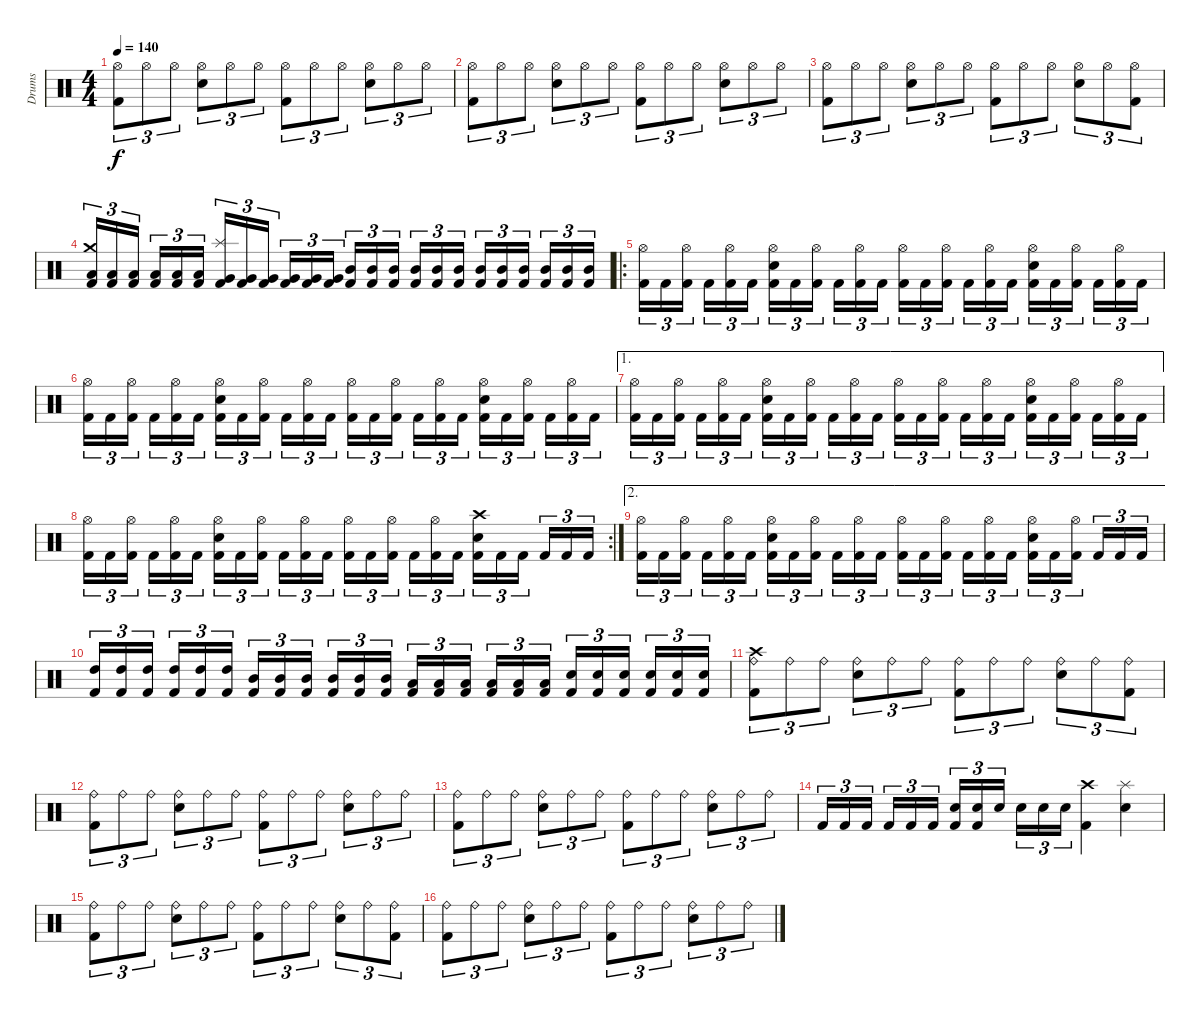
\track ("Drums" "Drums") {instrument percussion}
\staff {score}
\articulation defaults
\ts (4 4)
\tempo 140
\clef neutral
\ks c
("Hi-Hat (open)" "Kick (hit) 2").8{tu (3 2) dy f} "Hi-Hat (open)".8{tu (3 2)} "Hi-Hat (open)".8{tu (3 2)} ("Hi-Hat (open)" "Electric Snare (hit)").8{tu (3 2)} "Hi-Hat (open)".8{tu (3 2)} "Hi-Hat (open)".8{tu (3 2)} ("Hi-Hat (open)" "Kick (hit) 2").8{tu (3 2)} "Hi-Hat (open)".8{tu (3 2)} "Hi-Hat (open)".8{tu (3 2)} ("Hi-Hat (open)" "Electric Snare (hit)").8{tu (3 2)} "Hi-Hat (open)".8{tu (3 2)} "Hi-Hat (open)".8{tu (3 2)} |
("Hi-Hat (open)" "Kick (hit) 2").8{tu (3 2)} "Hi-Hat (open)".8{tu (3 2)} "Hi-Hat (open)".8{tu (3 2)} ("Hi-Hat (open)" "Electric Snare (hit)").8{tu (3 2)} "Hi-Hat (open)".8{tu (3 2)} "Hi-Hat (open)".8{tu (3 2)} ("Hi-Hat (open)" "Kick (hit) 2").8{tu (3 2)} "Hi-Hat (open)".8{tu (3 2)} "Hi-Hat (open)".8{tu (3 2)} ("Hi-Hat (open)" "Electric Snare (hit)").8{tu (3 2)} "Hi-Hat (open)".8{tu (3 2)} "Hi-Hat (open)".8{tu (3 2)} |
("Hi-Hat (open)" "Kick (hit) 2").8{tu (3 2)} "Hi-Hat (open)".8{tu (3 2)} "Hi-Hat (open)".8{tu (3 2)} ("Hi-Hat (open)" "Electric Snare (hit)").8{tu (3 2)} "Hi-Hat (open)".8{tu (3 2)} "Hi-Hat (open)".8{tu (3 2)} ("Hi-Hat (open)" "Kick (hit) 2").8{tu (3 2)} "Hi-Hat (open)".8{tu (3 2)} "Hi-Hat (open)".8{tu (3 2)} ("Hi-Hat (open)" "Electric Snare (hit)").8{tu (3 2)} "Hi-Hat (open)".8{tu (3 2)} ("Hi-Hat (open)" "Kick (hit) 2").8{tu (3 2)} |
("Crash medium (hit)" "Low Tom (hit)" "Kick (hit) 2").16{tu (3 2)} ("Low Tom (hit)" "Kick (hit) 2").16{tu (3 2)} ("Low Tom (hit)" "Kick (hit) 2").16{tu (3 2)} ("Low Tom (hit)" "Kick (hit) 2").16{tu (3 2)} ("Low Tom (hit)" "Kick (hit) 2").16{tu (3 2)} ("Low Tom (hit)" "Kick (hit) 2").16{tu (3 2)} ("Splash (hit)" "Very Low Tom (hit)" "Kick (hit) 2").16{tu (3 2)} ("Very Low Tom (hit)" "Kick (hit) 2").16{tu (3 2)} ("Very Low Tom (hit)" "Kick (hit) 2").16{tu (3 2)} ("Very Low Tom (hit)" "Kick (hit) 2").16{tu (3 2)} ("Very Low Tom (hit)" "Kick (hit) 2").16{tu (3 2)} ("Very Low Tom (hit)" "Kick (hit) 2").16{tu (3 2)} ("Mid Tom (hit)" "Kick (hit) 2").16{tu (3 2)} ("Mid Tom (hit)" "Kick (hit) 2").16{tu (3 2)} ("Mid Tom (hit)" "Kick (hit) 2").16{tu (3 2)} ("Mid Tom (hit)" "Kick (hit) 2").16{tu (3 2)} ("Mid Tom (hit)" "Kick (hit) 2").16{tu (3 2)} ("Mid Tom (hit)" "Kick (hit) 2").16{tu (3 2)} ("Mid Tom (hit)" "Kick (hit) 2").16{tu (3 2)} ("Mid Tom (hit)" "Kick (hit) 2").16{tu (3 2)} ("Mid Tom (hit)" "Kick (hit) 2").16{tu (3 2)} ("Mid Tom (hit)" "Kick (hit) 2").16{tu (3 2)} ("Mid Tom (hit)" "Kick (hit) 2").16{tu (3 2)} ("Mid Tom (hit)" "Kick (hit) 2").16{tu (3 2)} |
\ro
("Hi-Hat (open)" "Kick (hit) 2").16{tu (3 2)} "Kick (hit) 2".16{tu (3 2)} ("Hi-Hat (open)" "Kick (hit) 2").16{tu (3 2)} "Kick (hit) 2".16{tu (3 2)} ("Hi-Hat (open)" "Kick (hit) 2").16{tu (3 2)} "Kick (hit) 2".16{tu (3 2)} ("Hi-Hat (open)" "Electric Snare (hit)" "Kick (hit) 2").16{tu (3 2)} "Kick (hit) 2".16{tu (3 2)} ("Hi-Hat (open)" "Kick (hit) 2").16{tu (3 2)} "Kick (hit) 2".16{tu (3 2)} ("Hi-Hat (open)" "Kick (hit) 2").16{tu (3 2)} "Kick (hit) 2".16{tu (3 2)} ("Hi-Hat (open)" "Kick (hit) 2").16{tu (3 2)} "Kick (hit) 2".16{tu (3 2)} ("Hi-Hat (open)" "Kick (hit) 2").16{tu (3 2)} "Kick (hit) 2".16{tu (3 2)} ("Hi-Hat (open)" "Kick (hit) 2").16{tu (3 2)} "Kick (hit) 2".16{tu (3 2)} ("Hi-Hat (open)" "Electric Snare (hit)" "Kick (hit) 2").16{tu (3 2)} "Kick (hit) 2".16{tu (3 2)} ("Hi-Hat (open)" "Kick (hit) 2").16{tu (3 2)} "Kick (hit) 2".16{tu (3 2)} ("Hi-Hat (open)" "Kick (hit) 2").16{tu (3 2)} "Kick (hit) 2".16{tu (3 2)} |
("Hi-Hat (open)" "Kick (hit) 2").16{tu (3 2)} "Kick (hit) 2".16{tu (3 2)} ("Hi-Hat (open)" "Kick (hit) 2").16{tu (3 2)} "Kick (hit) 2".16{tu (3 2)} ("Hi-Hat (open)" "Kick (hit) 2").16{tu (3 2)} "Kick (hit) 2".16{tu (3 2)} ("Hi-Hat (open)" "Electric Snare (hit)" "Kick (hit) 2").16{tu (3 2)} "Kick (hit) 2".16{tu (3 2)} ("Hi-Hat (open)" "Kick (hit) 2").16{tu (3 2)} "Kick (hit) 2".16{tu (3 2)} ("Hi-Hat (open)" "Kick (hit) 2").16{tu (3 2)} "Kick (hit) 2".16{tu (3 2)} ("Hi-Hat (open)" "Kick (hit) 2").16{tu (3 2)} "Kick (hit) 2".16{tu (3 2)} ("Hi-Hat (open)" "Kick (hit) 2").16{tu (3 2)} "Kick (hit) 2".16{tu (3 2)} ("Hi-Hat (open)" "Kick (hit) 2").16{tu (3 2)} "Kick (hit) 2".16{tu (3 2)} ("Hi-Hat (open)" "Electric Snare (hit)" "Kick (hit) 2").16{tu (3 2)} "Kick (hit) 2".16{tu (3 2)} ("Hi-Hat (open)" "Kick (hit) 2").16{tu (3 2)} "Kick (hit) 2".16{tu (3 2)} ("Hi-Hat (open)" "Kick (hit) 2").16{tu (3 2)} "Kick (hit) 2".16{tu (3 2)} |
\ae 1
("Hi-Hat (open)" "Kick (hit) 2").16{tu (3 2)} "Kick (hit) 2".16{tu (3 2)} ("Hi-Hat (open)" "Kick (hit) 2").16{tu (3 2)} "Kick (hit) 2".16{tu (3 2)} ("Hi-Hat (open)" "Kick (hit) 2").16{tu (3 2)} "Kick (hit) 2".16{tu (3 2)} ("Hi-Hat (open)" "Electric Snare (hit)" "Kick (hit) 2").16{tu (3 2)} "Kick (hit) 2".16{tu (3 2)} ("Hi-Hat (open)" "Kick (hit) 2").16{tu (3 2)} "Kick (hit) 2".16{tu (3 2)} ("Hi-Hat (open)" "Kick (hit) 2").16{tu (3 2)} "Kick (hit) 2".16{tu (3 2)} ("Hi-Hat (open)" "Kick (hit) 2").16{tu (3 2)} "Kick (hit) 2".16{tu (3 2)} ("Hi-Hat (open)" "Kick (hit) 2").16{tu (3 2)} "Kick (hit) 2".16{tu (3 2)} ("Hi-Hat (open)" "Kick (hit) 2").16{tu (3 2)} "Kick (hit) 2".16{tu (3 2)} ("Hi-Hat (open)" "Electric Snare (hit)" "Kick (hit) 2").16{tu (3 2)} "Kick (hit) 2".16{tu (3 2)} ("Hi-Hat (open)" "Kick (hit) 2").16{tu (3 2)} "Kick (hit) 2".16{tu (3 2)} ("Hi-Hat (open)" "Kick (hit) 2").16{tu (3 2)} "Kick (hit) 2".16{tu (3 2)} |
\rc 2
("Hi-Hat (open)" "Kick (hit) 2").16{tu (3 2)} "Kick (hit) 2".16{tu (3 2)} ("Hi-Hat (open)" "Kick (hit) 2").16{tu (3 2)} "Kick (hit) 2".16{tu (3 2)} ("Hi-Hat (open)" "Kick (hit) 2").16{tu (3 2)} "Kick (hit) 2".16{tu (3 2)} ("Hi-Hat (open)" "Electric Snare (hit)" "Kick (hit) 2").16{tu (3 2)} "Kick (hit) 2".16{tu (3 2)} ("Hi-Hat (open)" "Kick (hit) 2").16{tu (3 2)} "Kick (hit) 2".16{tu (3 2)} ("Hi-Hat (open)" "Kick (hit) 2").16{tu (3 2)} "Kick (hit) 2".16{tu (3 2)} ("Hi-Hat (open)" "Kick (hit) 2").16{tu (3 2)} "Kick (hit) 2".16{tu (3 2)} ("Hi-Hat (open)" "Kick (hit) 2").16{tu (3 2)} "Kick (hit) 2".16{tu (3 2)} ("Hi-Hat (open)" "Kick (hit) 2").16{tu (3 2)} "Kick (hit) 2".16{tu (3 2)} ("Crash high (hit)" "Electric Snare (hit)" "Kick (hit) 2").16{tu (3 2)} "Kick (hit) 2".16{tu (3 2)} "Kick (hit) 2".16{tu (3 2)} "Kick (hit) 2".16{tu (3 2)} "Kick (hit) 2".16{tu (3 2)} "Kick (hit) 2".16{tu (3 2)} |
\ae 2
("Hi-Hat (open)" "Kick (hit) 2").16{tu (3 2)} "Kick (hit) 2".16{tu (3 2)} ("Hi-Hat (open)" "Kick (hit) 2").16{tu (3 2)} "Kick (hit) 2".16{tu (3 2)} ("Hi-Hat (open)" "Kick (hit) 2").16{tu (3 2)} "Kick (hit) 2".16{tu (3 2)} ("Hi-Hat (open)" "Electric Snare (hit)" "Kick (hit) 2").16{tu (3 2)} "Kick (hit) 2".16{tu (3 2)} ("Hi-Hat (open)" "Kick (hit) 2").16{tu (3 2)} "Kick (hit) 2".16{tu (3 2)} ("Hi-Hat (open)" "Kick (hit) 2").16{tu (3 2)} "Kick (hit) 2".16{tu (3 2)} ("Hi-Hat (open)" "Kick (hit) 2").16{tu (3 2)} "Kick (hit) 2".16{tu (3 2)} ("Hi-Hat (open)" "Kick (hit) 2").16{tu (3 2)} "Kick (hit) 2".16{tu (3 2)} ("Hi-Hat (open)" "Kick (hit) 2").16{tu (3 2)} "Kick (hit) 2".16{tu (3 2)} ("Hi-Hat (open)" "Electric Snare (hit)" "Kick (hit) 2").16{tu (3 2)} "Kick (hit) 2".16{tu (3 2)} ("Hi-Hat (open)" "Kick (hit) 2").16{tu (3 2)} "Kick (hit) 2".16{tu (3 2)} "Kick (hit) 2".16{tu (3 2)} "Kick (hit) 2".16{tu (3 2)} |
("High Tom (hit)" "Kick (hit) 2").16{tu (3 2)} ("High Tom (hit)" "Kick (hit) 2").16{tu (3 2)} ("High Tom (hit)" "Kick (hit) 2").16{tu (3 2)} ("High Tom (hit)" "Kick (hit) 2").16{tu (3 2)} ("High Tom (hit)" "Kick (hit) 2").16{tu (3 2)} ("High Tom (hit)" "Kick (hit) 2").16{tu (3 2)} ("Mid Tom (hit)" "Kick (hit) 2").16{tu (3 2)} ("Mid Tom (hit)" "Kick (hit) 2").16{tu (3 2)} ("Mid Tom (hit)" "Kick (hit) 2").16{tu (3 2)} ("Mid Tom (hit)" "Kick (hit) 2").16{tu (3 2)} ("Mid Tom (hit)" "Kick (hit) 2").16{tu (3 2)} ("Mid Tom (hit)" "Kick (hit) 2").16{tu (3 2)} ("Low Tom (hit)" "Kick (hit) 2").16{tu (3 2)} ("Low Tom (hit)" "Kick (hit) 2").16{tu (3 2)} ("Low Tom (hit)" "Kick (hit) 2").16{tu (3 2)} ("Low Tom (hit)" "Kick (hit) 2").16{tu (3 2)} ("Low Tom (hit)" "Kick (hit) 2").16{tu (3 2)} ("Low Tom (hit)" "Kick (hit) 2").16{tu (3 2)} ("Electric Snare (hit)" "Kick (hit) 2").16{tu (3 2)} ("Electric Snare (hit)" "Kick (hit) 2").16{tu (3 2)} ("Electric Snare (hit)" "Kick (hit) 2").16{tu (3 2)} ("Electric Snare (hit)" "Kick (hit) 2").16{tu (3 2)} ("Electric Snare (hit)" "Kick (hit) 2").16{tu (3 2)} ("Electric Snare (hit)" "Kick (hit) 2").16{tu (3 2)} |
("Crash high (hit)" "Ride (bell)" "Kick (hit) 2").8{tu (3 2)} "Ride (bell)".8{tu (3 2)} "Ride (bell)".8{tu (3 2)} ("Ride (bell)" "Electric Snare (hit)").8{tu (3 2)} "Ride (bell)".8{tu (3 2)} "Ride (bell)".8{tu (3 2)} ("Ride (bell)" "Kick (hit) 2").8{tu (3 2)} "Ride (bell)".8{tu (3 2)} "Ride (bell)".8{tu (3 2)} ("Ride (bell)" "Electric Snare (hit)").8{tu (3 2)} "Ride (bell)".8{tu (3 2)} ("Ride (bell)" "Kick (hit) 2").8{tu (3 2)} |
("Ride (bell)" "Kick (hit) 2").8{tu (3 2)} "Ride (bell)".8{tu (3 2)} "Ride (bell)".8{tu (3 2)} ("Ride (bell)" "Electric Snare (hit)").8{tu (3 2)} "Ride (bell)".8{tu (3 2)} "Ride (bell)".8{tu (3 2)} ("Ride (bell)" "Kick (hit) 2").8{tu (3 2)} "Ride (bell)".8{tu (3 2)} "Ride (bell)".8{tu (3 2)} ("Ride (bell)" "Electric Snare (hit)").8{tu (3 2)} "Ride (bell)".8{tu (3 2)} "Ride (bell)".8{tu (3 2)} |
("Ride (bell)" "Kick (hit) 2").8{tu (3 2)} "Ride (bell)".8{tu (3 2)} "Ride (bell)".8{tu (3 2)} ("Ride (bell)" "Electric Snare (hit)").8{tu (3 2)} "Ride (bell)".8{tu (3 2)} "Ride (bell)".8{tu (3 2)} ("Ride (bell)" "Kick (hit) 2").8{tu (3 2)} "Ride (bell)".8{tu (3 2)} "Ride (bell)".8{tu (3 2)} ("Ride (bell)" "Electric Snare (hit)").8{tu (3 2)} "Ride (bell)".8{tu (3 2)} "Ride (bell)".8{tu (3 2)} |
"Kick (hit) 2".16{tu (3 2)} "Kick (hit) 2".16{tu (3 2)} "Kick (hit) 2".16{tu (3 2)} "Kick (hit) 2".16{tu (3 2)} "Kick (hit) 2".16{tu (3 2)} "Kick (hit) 2".16{tu (3 2)} ("Electric Snare (hit)" "Kick (hit) 2").16{tu (3 2)} ("Electric Snare (hit)" "Kick (hit) 2").16{tu (3 2)} "Electric Snare (hit)".16{tu (3 2)} "Electric Snare (hit)".16{tu (3 2)} "Electric Snare (hit)".16{tu (3 2)} "Electric Snare (hit)".16{tu (3 2)} ("Crash high (hit)" "Kick (hit) 2").4 ("Splash (hit)" "Electric Snare (hit)").4 |
("Ride (bell)" "Kick (hit) 2").8{tu (3 2)} "Ride (bell)".8{tu (3 2)} "Ride (bell)".8{tu (3 2)} ("Ride (bell)" "Electric Snare (hit)").8{tu (3 2)} "Ride (bell)".8{tu (3 2)} "Ride (bell)".8{tu (3 2)} ("Ride (bell)" "Kick (hit) 2").8{tu (3 2)} "Ride (bell)".8{tu (3 2)} "Ride (bell)".8{tu (3 2)} ("Ride (bell)" "Electric Snare (hit)").8{tu (3 2)} "Ride (bell)".8{tu (3 2)} ("Ride (bell)" "Kick (hit) 2").8{tu (3 2)} |
("Ride (bell)" "Kick (hit) 2").8{tu (3 2)} "Ride (bell)".8{tu (3 2)} "Ride (bell)".8{tu (3 2)} ("Ride (bell)" "Electric Snare (hit)").8{tu (3 2)} "Ride (bell)".8{tu (3 2)} "Ride (bell)".8{tu (3 2)} ("Ride (bell)" "Kick (hit) 2").8{tu (3 2)} "Ride (bell)".8{tu (3 2)} "Ride (bell)".8{tu (3 2)} ("Ride (bell)" "Electric Snare (hit)").8{tu (3 2)} "Ride (bell)".8{tu (3 2)} "Ride (bell)".8{tu (3 2)}
